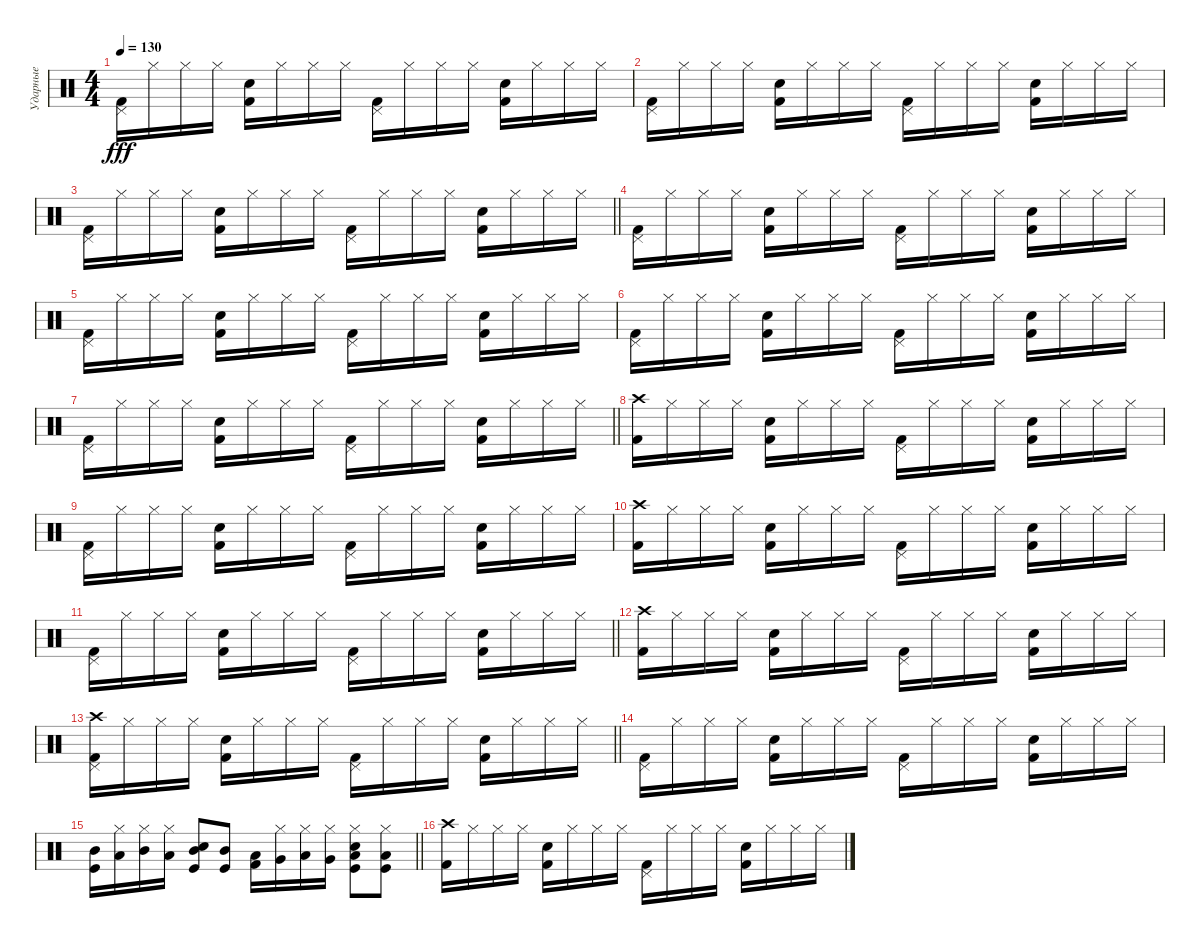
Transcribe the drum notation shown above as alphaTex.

\track ("Ударные" "Ударные") {instrument percussion}
\staff {score}
\articulation defaults
\ts (4 4)
\tempo 130
\clef neutral
\ks c
("Pedal Hi-Hat (hit)" "Kick (hit) 2").16{dy fff} "Hi-Hat (closed)".16 "Hi-Hat (closed)".16 "Hi-Hat (closed)".16 ("Snare (hit) 2" "Kick (hit) 2").16 "Hi-Hat (closed)".16 "Hi-Hat (closed)".16 "Hi-Hat (closed)".16 ("Pedal Hi-Hat (hit)" "Kick (hit) 2").16 "Hi-Hat (closed)".16 "Hi-Hat (closed)".16 "Hi-Hat (closed)".16 ("Snare (hit) 2" "Kick (hit) 2").16 "Hi-Hat (closed)".16 "Hi-Hat (closed)".16 "Hi-Hat (closed)".16 |
("Pedal Hi-Hat (hit)" "Kick (hit) 2").16 "Hi-Hat (closed)".16 "Hi-Hat (closed)".16 "Hi-Hat (closed)".16 ("Snare (hit) 2" "Kick (hit) 2").16 "Hi-Hat (closed)".16 "Hi-Hat (closed)".16 "Hi-Hat (closed)".16 ("Pedal Hi-Hat (hit)" "Kick (hit) 2").16 "Hi-Hat (closed)".16 "Hi-Hat (closed)".16 "Hi-Hat (closed)".16 ("Snare (hit) 2" "Kick (hit) 2").16 "Hi-Hat (closed)".16 "Hi-Hat (closed)".16 "Hi-Hat (closed)".16 |
\barLineRight lightlight
("Pedal Hi-Hat (hit)" "Kick (hit) 2").16 "Hi-Hat (closed)".16 "Hi-Hat (closed)".16 "Hi-Hat (closed)".16 ("Snare (hit) 2" "Kick (hit) 2").16 "Hi-Hat (closed)".16 "Hi-Hat (closed)".16 "Hi-Hat (closed)".16 ("Pedal Hi-Hat (hit)" "Kick (hit) 2").16 "Hi-Hat (closed)".16 "Hi-Hat (closed)".16 "Hi-Hat (closed)".16 ("Snare (hit) 2" "Kick (hit) 2").16 "Hi-Hat (closed)".16 "Hi-Hat (closed)".16 "Hi-Hat (closed)".16 |
("Pedal Hi-Hat (hit)" "Kick (hit) 2").16 "Hi-Hat (closed)".16 "Hi-Hat (closed)".16 "Hi-Hat (closed)".16 ("Snare (hit) 2" "Kick (hit) 2").16 "Hi-Hat (closed)".16 "Hi-Hat (closed)".16 "Hi-Hat (closed)".16 ("Pedal Hi-Hat (hit)" "Kick (hit) 2").16 "Hi-Hat (closed)".16 "Hi-Hat (closed)".16 "Hi-Hat (closed)".16 ("Snare (hit) 2" "Kick (hit) 2").16 "Hi-Hat (closed)".16 "Hi-Hat (closed)".16 "Hi-Hat (closed)".16 |
("Pedal Hi-Hat (hit)" "Kick (hit) 2").16 "Hi-Hat (closed)".16 "Hi-Hat (closed)".16 "Hi-Hat (closed)".16 ("Snare (hit) 2" "Kick (hit) 2").16 "Hi-Hat (closed)".16 "Hi-Hat (closed)".16 "Hi-Hat (closed)".16 ("Pedal Hi-Hat (hit)" "Kick (hit) 2").16 "Hi-Hat (closed)".16 "Hi-Hat (closed)".16 "Hi-Hat (closed)".16 ("Snare (hit) 2" "Kick (hit) 2").16 "Hi-Hat (closed)".16 "Hi-Hat (closed)".16 "Hi-Hat (closed)".16 |
("Pedal Hi-Hat (hit)" "Kick (hit) 2").16 "Hi-Hat (closed)".16 "Hi-Hat (closed)".16 "Hi-Hat (closed)".16 ("Snare (hit) 2" "Kick (hit) 2").16 "Hi-Hat (closed)".16 "Hi-Hat (closed)".16 "Hi-Hat (closed)".16 ("Pedal Hi-Hat (hit)" "Kick (hit) 2").16 "Hi-Hat (closed)".16 "Hi-Hat (closed)".16 "Hi-Hat (closed)".16 ("Snare (hit) 2" "Kick (hit) 2").16 "Hi-Hat (closed)".16 "Hi-Hat (closed)".16 "Hi-Hat (closed)".16 |
\barLineRight lightlight
("Pedal Hi-Hat (hit)" "Kick (hit) 2").16 "Hi-Hat (closed)".16 "Hi-Hat (closed)".16 "Hi-Hat (closed)".16 ("Snare (hit) 2" "Kick (hit) 2").16 "Hi-Hat (closed)".16 "Hi-Hat (closed)".16 "Hi-Hat (closed)".16 ("Pedal Hi-Hat (hit)" "Kick (hit) 2").16 "Hi-Hat (closed)".16 "Hi-Hat (closed)".16 "Hi-Hat (closed)".16 ("Snare (hit) 2" "Kick (hit) 2").16 "Hi-Hat (closed)".16 "Hi-Hat (closed)".16 "Hi-Hat (closed)".16 |
("Crash high (hit)" "Kick (hit) 2").16 "Hi-Hat (closed)".16 "Hi-Hat (closed)".16 "Hi-Hat (closed)".16 ("Snare (hit) 2" "Kick (hit) 2").16 "Hi-Hat (closed)".16 "Hi-Hat (closed)".16 "Hi-Hat (closed)".16 ("Pedal Hi-Hat (hit)" "Kick (hit) 2").16 "Hi-Hat (closed)".16 "Hi-Hat (closed)".16 "Hi-Hat (closed)".16 ("Snare (hit) 2" "Kick (hit) 2").16 "Hi-Hat (closed)".16 "Hi-Hat (closed)".16 "Hi-Hat (closed)".16 |
("Pedal Hi-Hat (hit)" "Kick (hit) 2").16 "Hi-Hat (closed)".16 "Hi-Hat (closed)".16 "Hi-Hat (closed)".16 ("Snare (hit) 2" "Kick (hit) 2").16 "Hi-Hat (closed)".16 "Hi-Hat (closed)".16 "Hi-Hat (closed)".16 ("Pedal Hi-Hat (hit)" "Kick (hit) 2").16 "Hi-Hat (closed)".16 "Hi-Hat (closed)".16 "Hi-Hat (closed)".16 ("Snare (hit) 2" "Kick (hit) 2").16 "Hi-Hat (closed)".16 "Hi-Hat (closed)".16 "Hi-Hat (closed)".16 |
("Crash high (hit)" "Kick (hit) 2").16 "Hi-Hat (closed)".16 "Hi-Hat (closed)".16 "Hi-Hat (closed)".16 ("Snare (hit) 2" "Kick (hit) 2").16 "Hi-Hat (closed)".16 "Hi-Hat (closed)".16 "Hi-Hat (closed)".16 ("Pedal Hi-Hat (hit)" "Kick (hit) 2").16 "Hi-Hat (closed)".16 "Hi-Hat (closed)".16 "Hi-Hat (closed)".16 ("Snare (hit) 2" "Kick (hit) 2").16 "Hi-Hat (closed)".16 "Hi-Hat (closed)".16 "Hi-Hat (closed)".16 |
\barLineRight lightlight
("Pedal Hi-Hat (hit)" "Kick (hit) 2").16 "Hi-Hat (closed)".16 "Hi-Hat (closed)".16 "Hi-Hat (closed)".16 ("Snare (hit) 2" "Kick (hit) 2").16 "Hi-Hat (closed)".16 "Hi-Hat (closed)".16 "Hi-Hat (closed)".16 ("Pedal Hi-Hat (hit)" "Kick (hit) 2").16 "Hi-Hat (closed)".16 "Hi-Hat (closed)".16 "Hi-Hat (closed)".16 ("Snare (hit) 2" "Kick (hit) 2").16 "Hi-Hat (closed)".16 "Hi-Hat (closed)".16 "Hi-Hat (closed)".16 |
("Crash high (hit)" "Kick (hit) 2").16 "Hi-Hat (closed)".16 "Hi-Hat (closed)".16 "Hi-Hat (closed)".16 ("Snare (hit) 2" "Kick (hit) 2").16 "Hi-Hat (closed)".16 "Hi-Hat (closed)".16 "Hi-Hat (closed)".16 ("Pedal Hi-Hat (hit)" "Kick (hit) 2").16 "Hi-Hat (closed)".16 "Hi-Hat (closed)".16 "Hi-Hat (closed)".16 ("Snare (hit) 2" "Kick (hit) 2").16 "Hi-Hat (closed)".16 "Hi-Hat (closed)".16 "Hi-Hat (closed)".16 |
\barLineRight lightlight
("Pedal Hi-Hat (hit)" "Crash high (hit)" "Kick (hit) 2").16 "Hi-Hat (closed)".16 "Hi-Hat (closed)".16 "Hi-Hat (closed)".16 ("Snare (hit) 2" "Kick (hit) 2").16 "Hi-Hat (closed)".16 "Hi-Hat (closed)".16 "Hi-Hat (closed)".16 ("Pedal Hi-Hat (hit)" "Kick (hit) 2").16 "Hi-Hat (closed)".16 "Hi-Hat (closed)".16 "Hi-Hat (closed)".16 ("Snare (hit) 2" "Kick (hit) 2").16 "Hi-Hat (closed)".16 "Hi-Hat (closed)".16 "Hi-Hat (closed)".16 |
("Pedal Hi-Hat (hit)" "Kick (hit) 2").16 "Hi-Hat (closed)".16 "Hi-Hat (closed)".16 "Hi-Hat (closed)".16 ("Snare (hit) 2" "Kick (hit) 2").16 "Hi-Hat (closed)".16 "Hi-Hat (closed)".16 "Hi-Hat (closed)".16 ("Pedal Hi-Hat (hit)" "Kick (hit) 2").16 "Hi-Hat (closed)".16 "Hi-Hat (closed)".16 "Hi-Hat (closed)".16 ("Snare (hit) 2" "Kick (hit) 2").16 "Hi-Hat (closed)".16 "Hi-Hat (closed)".16 "Hi-Hat (closed)".16 |
\barLineRight lightlight
("Mid Tom (hit)" "Kick (hit)").16 ("Low Tom (hit)" "Hi-Hat (closed)").16 ("Mid Tom (hit)" "Hi-Hat (closed)").16 ("Low Tom (hit)" "Hi-Hat (closed)").16 ("Snare (hit) 2" "Mid Tom (hit)" "Kick (hit)").8 ("Mid Tom (hit)" "Kick (hit)").8 ("Kick (hit) 2" "Low Tom (hit)").16 ("Very Low Tom (hit)" "Hi-Hat (closed)").16 ("Hi-Hat (closed)" "Low Tom (hit)").16 ("Very Low Tom (hit)" "Hi-Hat (closed)").16 ("Hi-Hat (closed)" "Low Tom (hit)" "Snare (hit) 2" "Kick (hit)").8 ("Hi-Hat (closed)" "Low Tom (hit)" "Kick (hit)").8 |
("Crash high (hit)" "Kick (hit) 2").16 "Hi-Hat (closed)".16 "Hi-Hat (closed)".16 "Hi-Hat (closed)".16 ("Snare (hit) 2" "Kick (hit) 2").16 "Hi-Hat (closed)".16 "Hi-Hat (closed)".16 "Hi-Hat (closed)".16 ("Pedal Hi-Hat (hit)" "Kick (hit) 2").16 "Hi-Hat (closed)".16 "Hi-Hat (closed)".16 "Hi-Hat (closed)".16 ("Snare (hit) 2" "Kick (hit) 2").16 "Hi-Hat (closed)".16 "Hi-Hat (closed)".16 "Hi-Hat (closed)".16
